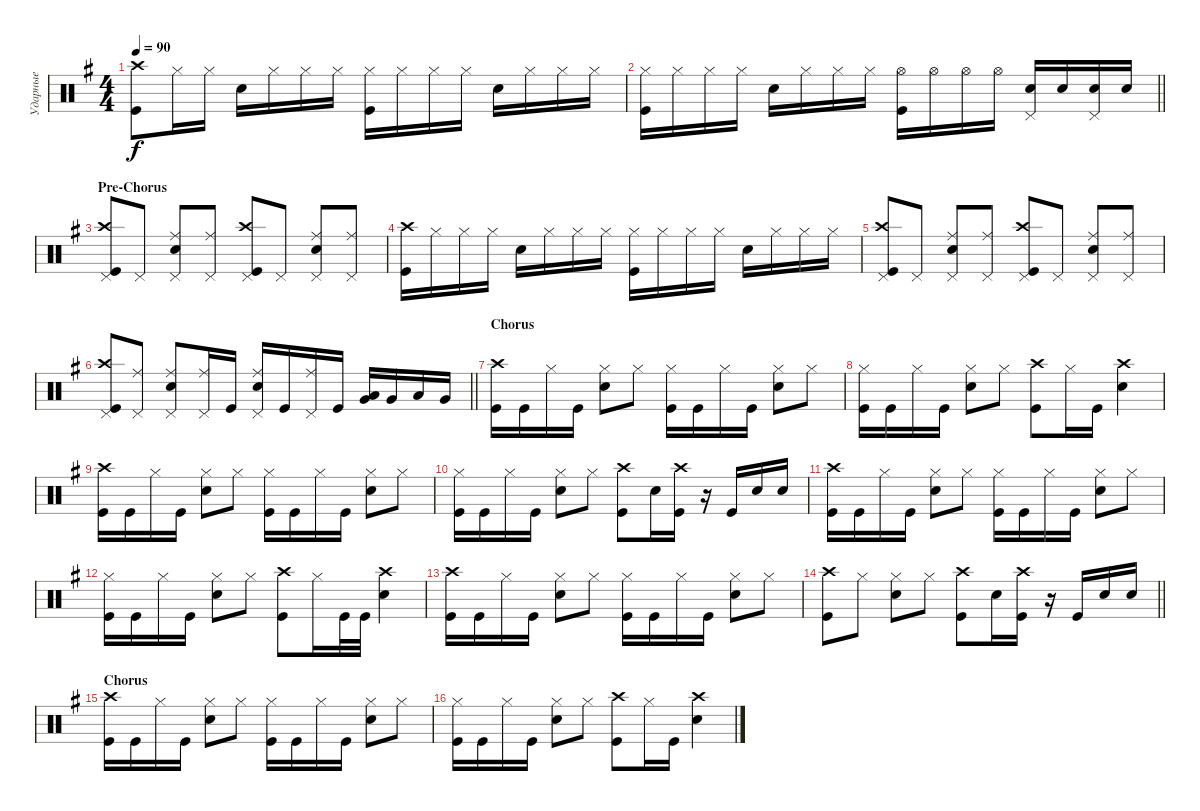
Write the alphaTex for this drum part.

\track ("Ударные" "Ударные") {instrument percussion}
\staff {score}
\articulation defaults
\ts (4 4)
\tempo 90
\clef neutral
\ks eminor
("Kick (hit)" "Crash high (hit)").8{dy f} "Hi-Hat (closed)".16 "Hi-Hat (closed)".16 "Snare (hit) 2".16 "Hi-Hat (closed)".16 "Hi-Hat (closed)".16 "Hi-Hat (closed)".16 ("Hi-Hat (closed)" "Kick (hit)").16 "Hi-Hat (closed)".16 "Hi-Hat (closed)".16 "Hi-Hat (closed)".16 "Snare (hit) 2".16 "Hi-Hat (closed)".16 "Hi-Hat (closed)".16 "Hi-Hat (closed)".16 |
\barLineRight lightlight
("Kick (hit)" "Hi-Hat (closed)").16 "Hi-Hat (closed)".16 "Hi-Hat (closed)".16 "Hi-Hat (closed)".16 "Snare (hit) 2".16 "Hi-Hat (closed)".16 "Hi-Hat (closed)".16 "Hi-Hat (closed)".16 ("Hi-Hat (open)" "Kick (hit)").16 "Hi-Hat (open)".16 "Hi-Hat (open)".16 "Hi-Hat (open)".16 ("Snare (hit) 2" "Pedal Hi-Hat (hit)").16 "Snare (hit) 2".16 ("Snare (hit) 2" "Pedal Hi-Hat (hit)").16 "Snare (hit) 2".16 |
\section ("" "Pre-Chorus")
("Kick (hit)" "Crash high (hit)" "Pedal Hi-Hat (hit)").8 "Pedal Hi-Hat (hit)".8 ("Ride (middle)" "Pedal Hi-Hat (hit)" "Snare (hit) 2").8 ("Ride (middle)" "Pedal Hi-Hat (hit)").8 ("Kick (hit)" "Crash high (hit)" "Pedal Hi-Hat (hit)").8 "Pedal Hi-Hat (hit)".8 ("Ride (middle)" "Pedal Hi-Hat (hit)" "Snare (hit) 2").8 ("Ride (middle)" "Pedal Hi-Hat (hit)").8 |
("Kick (hit)" "Crash high (hit)").16 "Hi-Hat (closed)".16 "Hi-Hat (closed)".16 "Hi-Hat (closed)".16 "Snare (hit) 2".16 "Hi-Hat (closed)".16 "Hi-Hat (closed)".16 "Hi-Hat (closed)".16 ("Kick (hit)" "Hi-Hat (closed)").16 "Hi-Hat (closed)".16 "Hi-Hat (closed)".16 "Hi-Hat (closed)".16 "Snare (hit) 2".16 "Hi-Hat (closed)".16 "Hi-Hat (closed)".16 "Hi-Hat (closed)".16 |
("Kick (hit)" "Crash high (hit)" "Pedal Hi-Hat (hit)").8 "Pedal Hi-Hat (hit)".8 ("Ride (middle)" "Pedal Hi-Hat (hit)" "Snare (hit) 2").8 ("Ride (middle)" "Pedal Hi-Hat (hit)").8 ("Kick (hit)" "Crash high (hit)" "Pedal Hi-Hat (hit)").8 "Pedal Hi-Hat (hit)".8 ("Ride (middle)" "Pedal Hi-Hat (hit)" "Snare (hit) 2").8 ("Ride (middle)" "Pedal Hi-Hat (hit)").8 |
\barLineRight lightlight
("Kick (hit)" "Crash high (hit)" "Pedal Hi-Hat (hit)").8 ("Pedal Hi-Hat (hit)" "Ride (middle)").8 ("Ride (middle)" "Pedal Hi-Hat (hit)" "Snare (hit) 2").8 ("Ride (middle)" "Pedal Hi-Hat (hit)").16 "Kick (hit)".16 ("Snare (hit) 2" "Pedal Hi-Hat (hit)" "Ride (middle)").16 "Kick (hit)".16 ("Pedal Hi-Hat (hit)" "Ride (middle)").16 "Kick (hit)".16 ("Very Low Tom (hit)" "Low Tom (hit)").16{bd 60} "Very Low Tom (hit)".16 "Low Tom (hit)".16 "Very Low Tom (hit)".16 |
\section ("" "Chorus")
("Kick (hit)" "Crash high (hit)").16 "Kick (hit)".16 "Hi-Hat (closed)".16 "Kick (hit)".16 ("Snare (hit) 2" "Hi-Hat (closed)").8 "Hi-Hat (closed)".8 ("Hi-Hat (closed)" "Kick (hit)").16 "Kick (hit)".16 "Hi-Hat (closed)".16 "Kick (hit)".16 ("Snare (hit) 2" "Hi-Hat (closed)").8 "Hi-Hat (closed)".8 |
("Hi-Hat (closed)" "Kick (hit)").16 "Kick (hit)".16 "Hi-Hat (closed)".16 "Kick (hit)".16 ("Snare (hit) 2" "Hi-Hat (closed)").8 "Hi-Hat (closed)".8 ("Kick (hit)" "Crash high (hit)").8 "Hi-Hat (closed)".16 "Kick (hit)".16 ("Snare (hit) 2" "Crash high (hit)").4 |
("Kick (hit)" "Crash high (hit)").16 "Kick (hit)".16 "Hi-Hat (closed)".16 "Kick (hit)".16 ("Snare (hit) 2" "Hi-Hat (closed)").8 "Hi-Hat (closed)".8 ("Hi-Hat (closed)" "Kick (hit)").16 "Kick (hit)".16 "Hi-Hat (closed)".16 "Kick (hit)".16 ("Snare (hit) 2" "Hi-Hat (closed)").8 "Hi-Hat (closed)".8 |
("Hi-Hat (closed)" "Kick (hit)").16 "Kick (hit)".16 "Hi-Hat (closed)".16 "Kick (hit)".16 ("Snare (hit) 2" "Hi-Hat (closed)").8 "Hi-Hat (closed)".8 ("Kick (hit)" "Crash high (hit)").8 "Snare (hit) 2".16 ("Kick (hit)" "Crash high (hit)").16 r.16 "Kick (hit)".16 "Snare (hit) 2".16 "Snare (hit) 2".16 |
("Kick (hit)" "Crash high (hit)").16 "Kick (hit)".16 "Hi-Hat (closed)".16 "Kick (hit)".16 ("Snare (hit) 2" "Hi-Hat (closed)").8 "Hi-Hat (closed)".8 ("Hi-Hat (closed)" "Kick (hit)").16 "Kick (hit)".16 "Hi-Hat (closed)".16 "Kick (hit)".16 ("Snare (hit) 2" "Hi-Hat (closed)").8 "Hi-Hat (closed)".8 |
("Hi-Hat (closed)" "Kick (hit)").16 "Kick (hit)".16 "Hi-Hat (closed)".16 "Kick (hit)".16 ("Snare (hit) 2" "Hi-Hat (closed)").8 "Hi-Hat (closed)".8 ("Kick (hit)" "Crash high (hit)").8 "Hi-Hat (closed)".16 "Kick (hit)".32 "Kick (hit)".32 ("Snare (hit) 2" "Crash high (hit)").4 |
("Kick (hit)" "Crash high (hit)").16 "Kick (hit)".16 "Hi-Hat (closed)".16 "Kick (hit)".16 ("Snare (hit) 2" "Hi-Hat (closed)").8 "Hi-Hat (closed)".8 ("Hi-Hat (closed)" "Kick (hit)").16 "Kick (hit)".16 "Hi-Hat (closed)".16 "Kick (hit)".16 ("Snare (hit) 2" "Hi-Hat (closed)").8 "Hi-Hat (closed)".8 |
\barLineRight lightlight
("Crash high (hit)" "Kick (hit)").8 "Hi-Hat (closed)".8 ("Snare (hit) 2" "Hi-Hat (closed)").8 "Hi-Hat (closed)".8 ("Kick (hit)" "Crash high (hit)").8 "Snare (hit) 2".16 ("Kick (hit)" "Crash high (hit)").16 r.16 "Kick (hit)".16 "Snare (hit) 2".16 "Snare (hit) 2".16 |
\section ("" "Chorus")
("Kick (hit)" "Crash high (hit)").16 "Kick (hit)".16 "Hi-Hat (closed)".16 "Kick (hit)".16 ("Snare (hit) 2" "Hi-Hat (closed)").8 "Hi-Hat (closed)".8 ("Hi-Hat (closed)" "Kick (hit)").16 "Kick (hit)".16 "Hi-Hat (closed)".16 "Kick (hit)".16 ("Snare (hit) 2" "Hi-Hat (closed)").8 "Hi-Hat (closed)".8 |
("Hi-Hat (closed)" "Kick (hit)").16 "Kick (hit)".16 "Hi-Hat (closed)".16 "Kick (hit)".16 ("Snare (hit) 2" "Hi-Hat (closed)").8 "Hi-Hat (closed)".8 ("Kick (hit)" "Crash high (hit)").8 "Hi-Hat (closed)".16 "Kick (hit)".16 ("Snare (hit) 2" "Crash high (hit)").4
